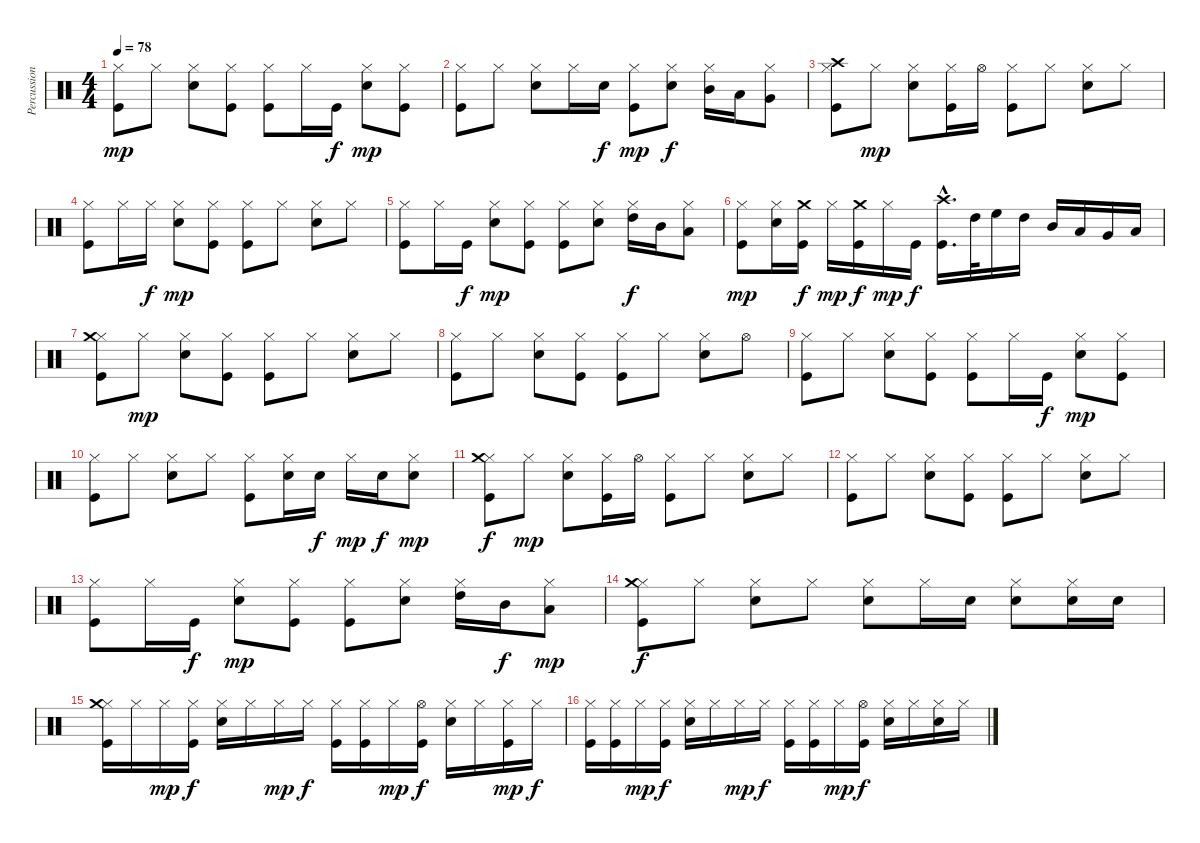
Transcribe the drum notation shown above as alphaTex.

\track ("Percussion" "Percussion") {instrument percussion}
\staff {score}
\articulation defaults
\ts (4 4)
\tempo 78
\clef neutral
\ks c
("Kick (hit)" "Hi-Hat (closed)").8{dy mp} "Hi-Hat (closed)".8 ("Electric Snare (hit)" "Hi-Hat (closed)").8 ("Kick (hit)" "Hi-Hat (closed)").8 ("Kick (hit)" "Hi-Hat (closed)").8 "Hi-Hat (closed)".16 "Kick (hit)".16{dy f} ("Electric Snare (hit)" "Hi-Hat (closed)").8{dy mp} ("Kick (hit)" "Hi-Hat (closed)").8 |
("Kick (hit)" "Hi-Hat (closed)").8 "Hi-Hat (closed)".8 ("Electric Snare (hit)" "Hi-Hat (closed)").8 "Hi-Hat (closed)".16 "Electric Snare (hit)".16{dy f} ("Kick (hit)" "Hi-Hat (closed)").8{dy mp} ("Electric Snare (hit)" "Hi-Hat (closed)").8{dy f} ("Mid Tom (hit)" "Hi-Hat (closed)").16 "Low Tom (hit)".16 ("Very Low Tom (hit)" "Hi-Hat (closed)").8 |
("Kick (hit)" "Hi-Hat (closed)" "Crash high (hit)").8 "Hi-Hat (closed)".8{dy mp} ("Electric Snare (hit)" "Hi-Hat (closed)").8 ("Kick (hit)" "Hi-Hat (closed)").16 "Hi-Hat (open)".16 ("Kick (hit)" "Hi-Hat (closed)").8 "Hi-Hat (closed)".8 ("Electric Snare (hit)" "Hi-Hat (closed)").8 "Hi-Hat (closed)".8 |
("Kick (hit)" "Hi-Hat (closed)").8 "Hi-Hat (closed)".16 "Hi-Hat (closed)".16{dy f} ("Electric Snare (hit)" "Hi-Hat (closed)").8{dy mp} ("Kick (hit)" "Hi-Hat (closed)").8 ("Kick (hit)" "Hi-Hat (closed)").8 "Hi-Hat (closed)".8 ("Electric Snare (hit)" "Hi-Hat (closed)").8 "Hi-Hat (closed)".8 |
("Kick (hit)" "Hi-Hat (closed)").8 "Hi-Hat (closed)".16 "Kick (hit)".16{dy f} ("Electric Snare (hit)" "Hi-Hat (closed)").8{dy mp} ("Kick (hit)" "Hi-Hat (closed)").8 ("Kick (hit)" "Hi-Hat (closed)").8 ("Electric Snare (hit)" "Hi-Hat (closed)").8 ("High Tom (hit)" "Hi-Hat (closed)").16{dy f} "Mid Tom (hit)".16 ("Low Tom (hit)" "Hi-Hat (closed)").8 |
("Kick (hit)" "Hi-Hat (closed)").8{dy mp} ("Electric Snare (hit)" "Hi-Hat (closed)").16 ("Kick (hit)" "Crash medium (hit)").16{dy f} "Hi-Hat (closed)".16{dy mp} ("Kick (hit)" "Crash medium (hit)").16{dy f} "Hi-Hat (closed)".16{dy mp} "Kick (hit)".16{dy f} ("Kick (hit)"{hac} "Crash high (hit)"{hac}).16{d} "High Tom (hit)".32 "High Floor Tom (hit)".16 "High Tom (hit)".16 "Mid Tom (hit)".16 "Low Tom (hit)".16 "Very Low Tom (hit)".16 "Low Floor Tom (hit)".16 |
("Kick (hit)" "Hi-Hat (closed)" "Crash medium (hit)").8 "Hi-Hat (closed)".8{dy mp} ("Electric Snare (hit)" "Hi-Hat (closed)").8 ("Kick (hit)" "Hi-Hat (closed)").8 ("Kick (hit)" "Hi-Hat (closed)").8 "Hi-Hat (closed)".8 ("Electric Snare (hit)" "Hi-Hat (closed)").8 "Hi-Hat (closed)".8 |
("Kick (hit)" "Hi-Hat (closed)").8 "Hi-Hat (closed)".8 ("Electric Snare (hit)" "Hi-Hat (closed)").8 ("Kick (hit)" "Hi-Hat (closed)").8 ("Kick (hit)" "Hi-Hat (closed)").8 "Hi-Hat (closed)".8 ("Electric Snare (hit)" "Hi-Hat (closed)").8 "Hi-Hat (open)".8 |
("Kick (hit)" "Hi-Hat (closed)").8 "Hi-Hat (closed)".8 ("Electric Snare (hit)" "Hi-Hat (closed)").8 ("Kick (hit)" "Hi-Hat (closed)").8 ("Kick (hit)" "Hi-Hat (closed)").8 "Hi-Hat (closed)".16 "Kick (hit)".16{dy f} ("Electric Snare (hit)" "Hi-Hat (closed)").8{dy mp} ("Kick (hit)" "Hi-Hat (closed)").8 |
("Kick (hit)" "Hi-Hat (closed)").8 "Hi-Hat (closed)".8 ("Electric Snare (hit)" "Hi-Hat (closed)").8 "Hi-Hat (closed)".8 ("Kick (hit)" "Hi-Hat (closed)").8 ("Electric Snare (hit)" "Hi-Hat (closed)").16 "Electric Snare (hit)".16{dy f} "Hi-Hat (closed)".16{dy mp} "Electric Snare (hit)".16{dy f} ("Electric Snare (hit)" "Hi-Hat (closed)").8{dy mp} |
("Kick (hit)" "Hi-Hat (closed)" "Crash medium (hit)").8{dy f} "Hi-Hat (closed)".8{dy mp} ("Electric Snare (hit)" "Hi-Hat (closed)").8 ("Kick (hit)" "Hi-Hat (closed)").16 "Hi-Hat (open)".16 ("Kick (hit)" "Hi-Hat (closed)").8 "Hi-Hat (closed)".8 ("Electric Snare (hit)" "Hi-Hat (closed)").8 "Hi-Hat (closed)".8 |
("Kick (hit)" "Hi-Hat (closed)").8 "Hi-Hat (closed)".8 ("Electric Snare (hit)" "Hi-Hat (closed)").8 ("Kick (hit)" "Hi-Hat (closed)").8 ("Kick (hit)" "Hi-Hat (closed)").8 "Hi-Hat (closed)".8 ("Electric Snare (hit)" "Hi-Hat (closed)").8 "Hi-Hat (closed)".8 |
("Kick (hit)" "Hi-Hat (closed)").8 "Hi-Hat (closed)".16 "Kick (hit)".16{dy f} ("Electric Snare (hit)" "Hi-Hat (closed)").8{dy mp} ("Kick (hit)" "Hi-Hat (closed)").8 ("Kick (hit)" "Hi-Hat (closed)").8 ("Electric Snare (hit)" "Hi-Hat (closed)").8 ("High Tom (hit)" "Hi-Hat (closed)").16 "Mid Tom (hit)".16{dy f} ("Low Tom (hit)" "Hi-Hat (closed)").8{dy mp} |
("Kick (hit)" "Hi-Hat (closed)" "Crash medium (hit)").8{dy f} "Hi-Hat (closed)".8 ("Electric Snare (hit)" "Hi-Hat (closed)").8 "Hi-Hat (closed)".8 ("Electric Snare (hit)" "Hi-Hat (closed)").8 "Hi-Hat (closed)".16 "Electric Snare (hit)".16 ("Electric Snare (hit)" "Hi-Hat (closed)").8 ("Electric Snare (hit)" "Hi-Hat (closed)").16 "Electric Snare (hit)".16 |
("Kick (hit)" "Hi-Hat (closed)" "Crash medium (hit)").16 "Hi-Hat (closed)".16 "Hi-Hat (closed)".16{dy mp} ("Kick (hit)" "Hi-Hat (closed)").16{dy f} ("Electric Snare (hit)" "Hi-Hat (closed)").16 "Hi-Hat (closed)".16 "Hi-Hat (closed)".16{dy mp} "Hi-Hat (closed)".16{dy f} ("Kick (hit)" "Hi-Hat (closed)").16 ("Kick (hit)" "Hi-Hat (closed)").16 "Hi-Hat (closed)".16{dy mp} ("Kick (hit)" "Hi-Hat (open)").16{dy f} ("Electric Snare (hit)" "Hi-Hat (closed)").16 "Hi-Hat (closed)".16 ("Kick (hit)" "Hi-Hat (closed)").16{dy mp} "Hi-Hat (closed)".16{dy f} |
("Kick (hit)" "Hi-Hat (closed)").16 ("Kick (hit)" "Hi-Hat (closed)").16 "Hi-Hat (closed)".16{dy mp} ("Kick (hit)" "Hi-Hat (closed)").16{dy f} ("Electric Snare (hit)" "Hi-Hat (closed)").16 "Hi-Hat (closed)".16 "Hi-Hat (closed)".16{dy mp} "Hi-Hat (closed)".16{dy f} ("Kick (hit)" "Hi-Hat (closed)").16 ("Kick (hit)" "Hi-Hat (closed)").16 "Hi-Hat (closed)".16{dy mp} ("Kick (hit)" "Hi-Hat (open)").16{dy f} ("Electric Snare (hit)" "Hi-Hat (closed)").16 "Hi-Hat (closed)".16 ("Electric Snare (hit)" "Hi-Hat (closed)").16 "Hi-Hat (closed)".16
